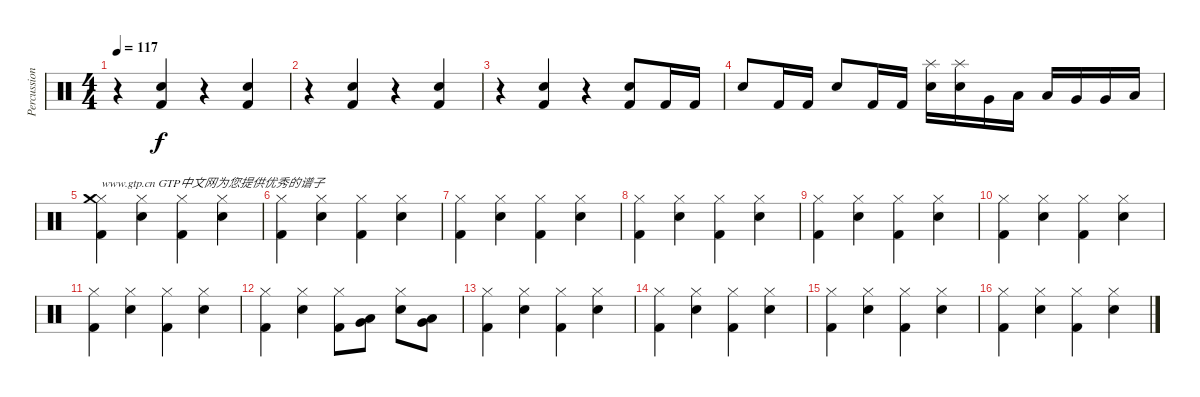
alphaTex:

\track ("Percussion" "Percussion") {instrument percussion}
\staff {score}
\articulation defaults
\ts (4 4)
\tempo 117
\clef neutral
\ks c
r.4{dy f} ("Metronome (bell)" "Kick (hit) 2").4 r.4 ("Metronome (bell)" "Kick (hit) 2").4 |
r.4 ("Metronome (bell)" "Kick (hit) 2").4 r.4 ("Metronome (bell)" "Kick (hit) 2").4 |
r.4 ("Metronome (bell)" "Kick (hit) 2").4 r.4 ("Metronome (bell)" "Kick (hit) 2").8 "Kick (hit) 2".16 "Kick (hit) 2".16 |
"Metronome (bell)".8 "Kick (hit) 2".16 "Kick (hit) 2".16 "Metronome (bell)".8 "Kick (hit) 2".16 "Kick (hit) 2".16 ("Splash (hit)" "Metronome (bell)").16 ("Splash (hit)" "Metronome (bell)").16 "Very Low Tom (hit)".16 "Low Floor Tom (hit)".16 "Low Tom (hit)".16 "Very Low Tom (hit)".16 "Very Low Tom (hit)".16 "Low Floor Tom (hit)".16 |
("Hi-Hat (closed)" "Crash medium (hit)" "Kick (hit) 2").4{txt "www.gtp.cn GTP中文网为您提供优秀的谱子"} ("Hi-Hat (closed)" "Metronome (bell)").4 ("Hi-Hat (closed)" "Kick (hit) 2").4 ("Hi-Hat (closed)" "Metronome (bell)").4 |
("Hi-Hat (closed)" "Kick (hit) 2").4 ("Hi-Hat (closed)" "Metronome (bell)").4 ("Hi-Hat (closed)" "Kick (hit) 2").4 ("Hi-Hat (closed)" "Metronome (bell)").4 |
("Hi-Hat (closed)" "Kick (hit) 2").4 ("Hi-Hat (closed)" "Metronome (bell)").4 ("Hi-Hat (closed)" "Kick (hit) 2").4 ("Hi-Hat (closed)" "Metronome (bell)").4 |
("Hi-Hat (closed)" "Kick (hit) 2").4 ("Hi-Hat (closed)" "Metronome (bell)").4 ("Hi-Hat (closed)" "Kick (hit) 2").4 ("Hi-Hat (closed)" "Metronome (bell)").4 |
("Hi-Hat (closed)" "Kick (hit) 2").4 ("Hi-Hat (closed)" "Metronome (bell)").4 ("Hi-Hat (closed)" "Kick (hit) 2").4 ("Hi-Hat (closed)" "Metronome (bell)").4 |
("Hi-Hat (closed)" "Kick (hit) 2").4 ("Hi-Hat (closed)" "Metronome (bell)").4 ("Hi-Hat (closed)" "Kick (hit) 2").4 ("Hi-Hat (closed)" "Metronome (bell)").4 |
("Hi-Hat (closed)" "Kick (hit) 2").4 ("Hi-Hat (closed)" "Metronome (bell)").4 ("Hi-Hat (closed)" "Kick (hit) 2").4 ("Hi-Hat (closed)" "Metronome (bell)").4 |
("Hi-Hat (closed)" "Kick (hit) 2").4 ("Hi-Hat (closed)" "Metronome (bell)").4 ("Hi-Hat (closed)" "Kick (hit) 2").8 ("Low Tom (hit)" "Very Low Tom (hit)").8 ("Hi-Hat (closed)" "Metronome (bell)").8 ("Very Low Tom (hit)" "Low Floor Tom (hit)").8 |
("Hi-Hat (closed)" "Kick (hit) 2").4 ("Hi-Hat (closed)" "Metronome (bell)").4 ("Hi-Hat (closed)" "Kick (hit) 2").4 ("Hi-Hat (closed)" "Metronome (bell)").4 |
("Hi-Hat (closed)" "Kick (hit) 2").4 ("Hi-Hat (closed)" "Metronome (bell)").4 ("Hi-Hat (closed)" "Kick (hit) 2").4 ("Hi-Hat (closed)" "Metronome (bell)").4 |
("Hi-Hat (closed)" "Kick (hit) 2").4 ("Hi-Hat (closed)" "Metronome (bell)").4 ("Hi-Hat (closed)" "Kick (hit) 2").4 ("Hi-Hat (closed)" "Metronome (bell)").4 |
("Hi-Hat (closed)" "Kick (hit) 2").4 ("Hi-Hat (closed)" "Metronome (bell)").4 ("Hi-Hat (closed)" "Kick (hit) 2").4 ("Hi-Hat (closed)" "Metronome (bell)").4
